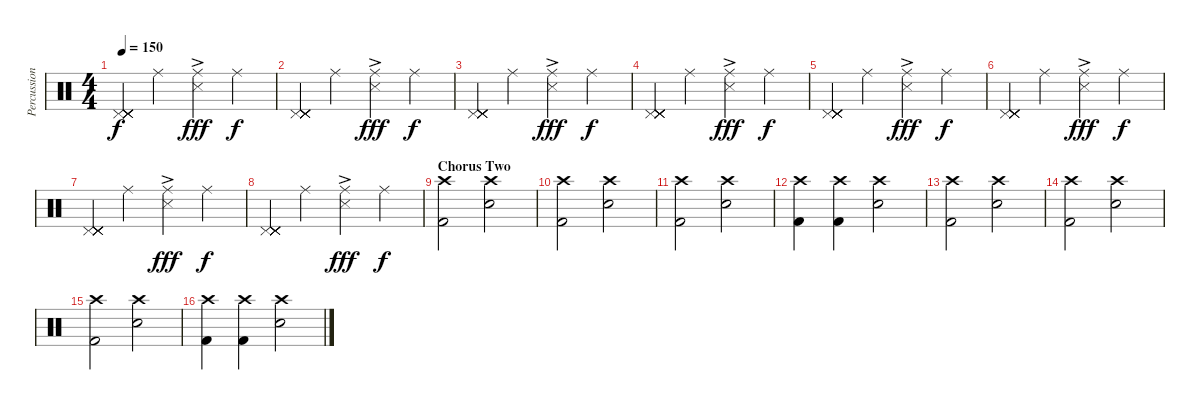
\track ("Percussion [Patrick Wilson]" "Percussion") {instrument percussion}
\staff {score}
\articulation defaults
\ts (4 4)
\tempo 150
\clef neutral
\ks c
("Pedal Hi-Hat (hit)" "Pedal Hi-Hat (hit)" "Pedal Hi-Hat (hit)" "Pedal Hi-Hat (hit)" "Pedal Hi-Hat (hit)" "Pedal Hi-Hat (hit)").4{dy f volume 16} "Ride (middle)".4{volume 10} ("Ride (middle)"{ac} "Snare (side stick) 3").4{dy fff} "Ride (middle)".4{dy f} |
("Pedal Hi-Hat (hit)" "Pedal Hi-Hat (hit)" "Pedal Hi-Hat (hit)" "Pedal Hi-Hat (hit)" "Pedal Hi-Hat (hit)" "Pedal Hi-Hat (hit)").4{volume 16} "Ride (middle)".4{volume 10} ("Ride (middle)"{ac} "Snare (side stick) 3").4{dy fff} "Ride (middle)".4{dy f} |
("Pedal Hi-Hat (hit)" "Pedal Hi-Hat (hit)" "Pedal Hi-Hat (hit)" "Pedal Hi-Hat (hit)" "Pedal Hi-Hat (hit)" "Pedal Hi-Hat (hit)").4{volume 16} "Ride (middle)".4{volume 10} ("Ride (middle)"{ac} "Snare (side stick) 3").4{dy fff} "Ride (middle)".4{dy f} |
("Pedal Hi-Hat (hit)" "Pedal Hi-Hat (hit)" "Pedal Hi-Hat (hit)" "Pedal Hi-Hat (hit)" "Pedal Hi-Hat (hit)" "Pedal Hi-Hat (hit)").4{volume 16} "Ride (middle)".4{volume 10} ("Ride (middle)"{ac} "Snare (side stick) 3").4{dy fff} "Ride (middle)".4{dy f} |
("Pedal Hi-Hat (hit)" "Pedal Hi-Hat (hit)" "Pedal Hi-Hat (hit)" "Pedal Hi-Hat (hit)" "Pedal Hi-Hat (hit)" "Pedal Hi-Hat (hit)").4{volume 16} "Ride (middle)".4{volume 10} ("Ride (middle)"{ac} "Snare (side stick) 3").4{dy fff} "Ride (middle)".4{dy f} |
("Pedal Hi-Hat (hit)" "Pedal Hi-Hat (hit)" "Pedal Hi-Hat (hit)" "Pedal Hi-Hat (hit)" "Pedal Hi-Hat (hit)" "Pedal Hi-Hat (hit)").4{volume 16} "Ride (middle)".4{volume 10} ("Ride (middle)"{ac} "Snare (side stick) 3").4{dy fff} "Ride (middle)".4{dy f} |
("Pedal Hi-Hat (hit)" "Pedal Hi-Hat (hit)" "Pedal Hi-Hat (hit)" "Pedal Hi-Hat (hit)" "Pedal Hi-Hat (hit)" "Pedal Hi-Hat (hit)").4{volume 16} "Ride (middle)".4{volume 10} ("Ride (middle)"{ac} "Snare (side stick) 3").4{dy fff} "Ride (middle)".4{dy f} |
("Pedal Hi-Hat (hit)" "Pedal Hi-Hat (hit)" "Pedal Hi-Hat (hit)" "Pedal Hi-Hat (hit)" "Pedal Hi-Hat (hit)" "Pedal Hi-Hat (hit)").4{volume 16} "Ride (middle)".4{volume 10} ("Ride (middle)"{ac} "Snare (side stick) 3").4{dy fff} "Ride (middle)".4{dy f} |
\section ("" "Chorus Two")
("Crash high (hit)" "Kick (hit) 2").2{volume 13} ("Crash high (hit)" "Snare (hit) 2").2 |
("Crash high (hit)" "Kick (hit) 2").2 ("Crash high (hit)" "Snare (hit) 2").2 |
("Crash high (hit)" "Kick (hit) 2").2 ("Crash high (hit)" "Snare (hit) 2").2 |
("Crash high (hit)" "Kick (hit) 2").4 ("Crash high (hit)" "Kick (hit) 2").4 ("Crash high (hit)" "Snare (hit) 2").2 |
("Crash high (hit)" "Kick (hit) 2").2{volume 13} ("Crash high (hit)" "Snare (hit) 2").2 |
("Crash high (hit)" "Kick (hit) 2").2 ("Crash high (hit)" "Snare (hit) 2").2 |
("Crash high (hit)" "Kick (hit) 2").2 ("Crash high (hit)" "Snare (hit) 2").2 |
("Crash high (hit)" "Kick (hit) 2").4 ("Crash high (hit)" "Kick (hit) 2").4 ("Crash high (hit)" "Snare (hit) 2").2
